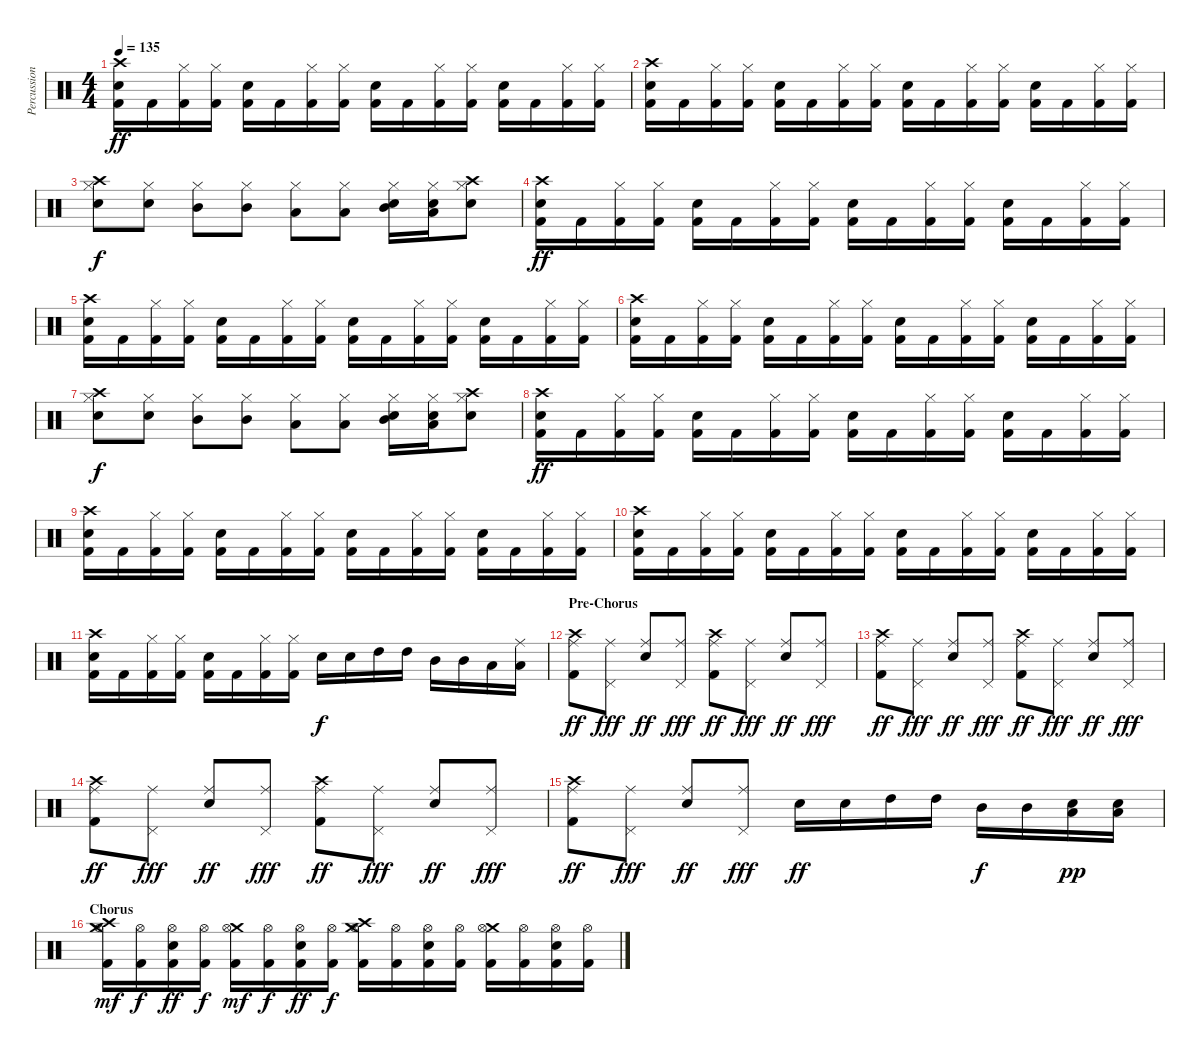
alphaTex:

\track ("Percussion" "Percussion") {instrument percussion}
\staff {score}
\articulation defaults
\ts (4 4)
\tempo 135
\clef neutral
\ks c
("Crash high (hit)" "Electric Snare (hit)" "Kick (hit) 2").16{dy ff} "Kick (hit) 2".16 ("Hi-Hat (closed)" "Kick (hit) 2").16 ("Hi-Hat (closed)" "Kick (hit) 2").16 ("Electric Snare (hit)" "Kick (hit) 2").16 "Kick (hit) 2".16 ("Hi-Hat (closed)" "Kick (hit) 2").16 ("Hi-Hat (closed)" "Kick (hit) 2").16 ("Electric Snare (hit)" "Kick (hit) 2").16 "Kick (hit) 2".16 ("Hi-Hat (closed)" "Kick (hit) 2").16 ("Hi-Hat (closed)" "Kick (hit) 2").16 ("Electric Snare (hit)" "Kick (hit) 2").16 "Kick (hit) 2".16 ("Hi-Hat (closed)" "Kick (hit) 2").16 ("Hi-Hat (closed)" "Kick (hit) 2").16 |
("Crash high (hit)" "Electric Snare (hit)" "Kick (hit) 2").16 "Kick (hit) 2".16 ("Hi-Hat (closed)" "Kick (hit) 2").16 ("Hi-Hat (closed)" "Kick (hit) 2").16 ("Electric Snare (hit)" "Kick (hit) 2").16 "Kick (hit) 2".16 ("Hi-Hat (closed)" "Kick (hit) 2").16 ("Hi-Hat (closed)" "Kick (hit) 2").16 ("Electric Snare (hit)" "Kick (hit) 2").16 "Kick (hit) 2".16 ("Hi-Hat (closed)" "Kick (hit) 2").16 ("Hi-Hat (closed)" "Kick (hit) 2").16 ("Electric Snare (hit)" "Kick (hit) 2").16 "Kick (hit) 2".16 ("Hi-Hat (closed)" "Kick (hit) 2").16 ("Hi-Hat (closed)" "Kick (hit) 2").16 |
("Hi-Hat (closed)" "Crash high (hit)" "Electric Snare (hit)").8{dy f} ("Hi-Hat (closed)" "Electric Snare (hit)").8 ("Hi-Hat (closed)" "Mid Tom (hit)").8 ("Hi-Hat (closed)" "Mid Tom (hit)").8 ("Hi-Hat (closed)" "Low Tom (hit)").8 ("Hi-Hat (closed)" "Low Tom (hit)").8 ("Hi-Hat (closed)" "Mid Tom (hit)" "Electric Snare (hit)").16 ("Hi-Hat (closed)" "Low Tom (hit)" "Electric Snare (hit)").16 ("Hi-Hat (closed)" "Crash high (hit)" "Electric Snare (hit)").8 |
("Crash high (hit)" "Electric Snare (hit)" "Kick (hit) 2").16{dy ff} "Kick (hit) 2".16 ("Hi-Hat (closed)" "Kick (hit) 2").16 ("Hi-Hat (closed)" "Kick (hit) 2").16 ("Electric Snare (hit)" "Kick (hit) 2").16 "Kick (hit) 2".16 ("Hi-Hat (closed)" "Kick (hit) 2").16 ("Hi-Hat (closed)" "Kick (hit) 2").16 ("Electric Snare (hit)" "Kick (hit) 2").16 "Kick (hit) 2".16 ("Hi-Hat (closed)" "Kick (hit) 2").16 ("Hi-Hat (closed)" "Kick (hit) 2").16 ("Electric Snare (hit)" "Kick (hit) 2").16 "Kick (hit) 2".16 ("Hi-Hat (closed)" "Kick (hit) 2").16 ("Hi-Hat (closed)" "Kick (hit) 2").16 |
("Crash high (hit)" "Electric Snare (hit)" "Kick (hit) 2").16 "Kick (hit) 2".16 ("Hi-Hat (closed)" "Kick (hit) 2").16 ("Hi-Hat (closed)" "Kick (hit) 2").16 ("Electric Snare (hit)" "Kick (hit) 2").16 "Kick (hit) 2".16 ("Hi-Hat (closed)" "Kick (hit) 2").16 ("Hi-Hat (closed)" "Kick (hit) 2").16 ("Electric Snare (hit)" "Kick (hit) 2").16 "Kick (hit) 2".16 ("Hi-Hat (closed)" "Kick (hit) 2").16 ("Hi-Hat (closed)" "Kick (hit) 2").16 ("Electric Snare (hit)" "Kick (hit) 2").16 "Kick (hit) 2".16 ("Hi-Hat (closed)" "Kick (hit) 2").16 ("Hi-Hat (closed)" "Kick (hit) 2").16 |
("Crash high (hit)" "Electric Snare (hit)" "Kick (hit) 2").16 "Kick (hit) 2".16 ("Hi-Hat (closed)" "Kick (hit) 2").16 ("Hi-Hat (closed)" "Kick (hit) 2").16 ("Electric Snare (hit)" "Kick (hit) 2").16 "Kick (hit) 2".16 ("Hi-Hat (closed)" "Kick (hit) 2").16 ("Hi-Hat (closed)" "Kick (hit) 2").16 ("Electric Snare (hit)" "Kick (hit) 2").16 "Kick (hit) 2".16 ("Hi-Hat (closed)" "Kick (hit) 2").16 ("Hi-Hat (closed)" "Kick (hit) 2").16 ("Electric Snare (hit)" "Kick (hit) 2").16 "Kick (hit) 2".16 ("Hi-Hat (closed)" "Kick (hit) 2").16 ("Hi-Hat (closed)" "Kick (hit) 2").16 |
("Hi-Hat (closed)" "Crash high (hit)" "Electric Snare (hit)").8{dy f} ("Hi-Hat (closed)" "Electric Snare (hit)").8 ("Hi-Hat (closed)" "Mid Tom (hit)").8 ("Hi-Hat (closed)" "Mid Tom (hit)").8 ("Hi-Hat (closed)" "Low Tom (hit)").8 ("Hi-Hat (closed)" "Low Tom (hit)").8 ("Hi-Hat (closed)" "Mid Tom (hit)" "Electric Snare (hit)").16 ("Hi-Hat (closed)" "Low Tom (hit)" "Electric Snare (hit)").16 ("Hi-Hat (closed)" "Crash high (hit)" "Electric Snare (hit)").8 |
("Crash high (hit)" "Electric Snare (hit)" "Kick (hit) 2").16{dy ff} "Kick (hit) 2".16 ("Hi-Hat (closed)" "Kick (hit) 2").16 ("Hi-Hat (closed)" "Kick (hit) 2").16 ("Electric Snare (hit)" "Kick (hit) 2").16 "Kick (hit) 2".16 ("Hi-Hat (closed)" "Kick (hit) 2").16 ("Hi-Hat (closed)" "Kick (hit) 2").16 ("Electric Snare (hit)" "Kick (hit) 2").16 "Kick (hit) 2".16 ("Hi-Hat (closed)" "Kick (hit) 2").16 ("Hi-Hat (closed)" "Kick (hit) 2").16 ("Electric Snare (hit)" "Kick (hit) 2").16 "Kick (hit) 2".16 ("Hi-Hat (closed)" "Kick (hit) 2").16 ("Hi-Hat (closed)" "Kick (hit) 2").16 |
("Crash high (hit)" "Electric Snare (hit)" "Kick (hit) 2").16 "Kick (hit) 2".16 ("Hi-Hat (closed)" "Kick (hit) 2").16 ("Hi-Hat (closed)" "Kick (hit) 2").16 ("Electric Snare (hit)" "Kick (hit) 2").16 "Kick (hit) 2".16 ("Hi-Hat (closed)" "Kick (hit) 2").16 ("Hi-Hat (closed)" "Kick (hit) 2").16 ("Electric Snare (hit)" "Kick (hit) 2").16 "Kick (hit) 2".16 ("Hi-Hat (closed)" "Kick (hit) 2").16 ("Hi-Hat (closed)" "Kick (hit) 2").16 ("Electric Snare (hit)" "Kick (hit) 2").16 "Kick (hit) 2".16 ("Hi-Hat (closed)" "Kick (hit) 2").16 ("Hi-Hat (closed)" "Kick (hit) 2").16 |
("Crash high (hit)" "Electric Snare (hit)" "Kick (hit) 2").16 "Kick (hit) 2".16 ("Hi-Hat (closed)" "Kick (hit) 2").16 ("Hi-Hat (closed)" "Kick (hit) 2").16 ("Electric Snare (hit)" "Kick (hit) 2").16 "Kick (hit) 2".16 ("Hi-Hat (closed)" "Kick (hit) 2").16 ("Hi-Hat (closed)" "Kick (hit) 2").16 ("Electric Snare (hit)" "Kick (hit) 2").16 "Kick (hit) 2".16 ("Hi-Hat (closed)" "Kick (hit) 2").16 ("Hi-Hat (closed)" "Kick (hit) 2").16 ("Electric Snare (hit)" "Kick (hit) 2").16 "Kick (hit) 2".16 ("Hi-Hat (closed)" "Kick (hit) 2").16 ("Hi-Hat (closed)" "Kick (hit) 2").16 |
("Crash high (hit)" "Electric Snare (hit)" "Kick (hit) 2").16 "Kick (hit) 2".16 ("Hi-Hat (closed)" "Kick (hit) 2").16 ("Hi-Hat (closed)" "Kick (hit) 2").16 ("Electric Snare (hit)" "Kick (hit) 2").16 "Kick (hit) 2".16 ("Hi-Hat (closed)" "Kick (hit) 2").16 ("Hi-Hat (closed)" "Kick (hit) 2").16 "Electric Snare (hit)".16{dy f} "Electric Snare (hit)".16 "High Tom (hit)".16 "High Tom (hit)".16 "Mid Tom (hit)".16 "Mid Tom (hit)".16 "Low Tom (hit)".16 ("Ride (middle)" "Low Tom (hit)").16 |
\section ("" "Pre-Chorus")
("Crash high (hit)" "Ride (middle)" "Kick (hit) 2").8{dy ff} ("Ride (middle)" "Pedal Hi-Hat (hit)").8{dy fff} ("Ride (middle)" "Electric Snare (hit)").8{dy ff} ("Ride (middle)" "Pedal Hi-Hat (hit)").8{dy fff} ("Crash high (hit)" "Ride (middle)" "Kick (hit) 2").8{dy ff} ("Ride (middle)" "Pedal Hi-Hat (hit)").8{dy fff} ("Ride (middle)" "Electric Snare (hit)").8{dy ff} ("Ride (middle)" "Pedal Hi-Hat (hit)").8{dy fff} |
("Crash high (hit)" "Ride (middle)" "Kick (hit) 2").8{dy ff} ("Ride (middle)" "Pedal Hi-Hat (hit)").8{dy fff} ("Ride (middle)" "Electric Snare (hit)").8{dy ff} ("Ride (middle)" "Pedal Hi-Hat (hit)").8{dy fff} ("Crash high (hit)" "Ride (middle)" "Kick (hit) 2").8{dy ff} ("Ride (middle)" "Pedal Hi-Hat (hit)").8{dy fff} ("Ride (middle)" "Electric Snare (hit)").8{dy ff} ("Ride (middle)" "Pedal Hi-Hat (hit)").8{dy fff} |
("Crash high (hit)" "Ride (middle)" "Kick (hit) 2").8{dy ff} ("Ride (middle)" "Pedal Hi-Hat (hit)").8{dy fff} ("Ride (middle)" "Electric Snare (hit)").8{dy ff} ("Ride (middle)" "Pedal Hi-Hat (hit)").8{dy fff} ("Crash high (hit)" "Ride (middle)" "Kick (hit) 2").8{dy ff} ("Ride (middle)" "Pedal Hi-Hat (hit)").8{dy fff} ("Ride (middle)" "Electric Snare (hit)").8{dy ff} ("Ride (middle)" "Pedal Hi-Hat (hit)").8{dy fff} |
("Crash high (hit)" "Ride (middle)" "Kick (hit) 2").8{dy ff} ("Ride (middle)" "Pedal Hi-Hat (hit)").8{dy fff} ("Ride (middle)" "Electric Snare (hit)").8{dy ff} ("Ride (middle)" "Pedal Hi-Hat (hit)").8{dy fff} "Electric Snare (hit)".16{dy ff} "Electric Snare (hit)".16 "High Tom (hit)".16 "High Tom (hit)".16 "Mid Tom (hit)".16{dy f} "Mid Tom (hit)".16 ("Low Tom (hit)" "Electric Snare (hit)").16{dy pp} ("Low Tom (hit)" "Electric Snare (hit)").16 |
\section ("" "Chorus")
("Crash high (hit)" "Crash medium (hit)" "Hi-Hat (open)" "Kick (hit) 2").16{dy mf} ("Hi-Hat (open)" "Kick (hit) 2").16{dy f} ("Hi-Hat (open)" "Electric Snare (hit)" "Kick (hit) 2").16{dy ff} ("Hi-Hat (open)" "Kick (hit) 2").16{dy f} ("Crash medium (hit)" "Hi-Hat (open)" "Kick (hit) 2").16{dy mf} ("Hi-Hat (open)" "Kick (hit) 2").16{dy f} ("Hi-Hat (open)" "Electric Snare (hit)" "Kick (hit) 2").16{dy ff} ("Hi-Hat (open)" "Kick (hit) 2").16{dy f} ("Crash high (hit)" "Crash medium (hit)" "Hi-Hat (open)" "Kick (hit) 2").16 ("Hi-Hat (open)" "Kick (hit) 2").16 ("Hi-Hat (open)" "Electric Snare (hit)" "Kick (hit) 2").16 ("Hi-Hat (open)" "Kick (hit) 2").16 ("Crash medium (hit)" "Hi-Hat (open)" "Kick (hit) 2").16 ("Hi-Hat (open)" "Kick (hit) 2").16 ("Hi-Hat (open)" "Electric Snare (hit)" "Kick (hit) 2").16 ("Hi-Hat (open)" "Kick (hit) 2").16
